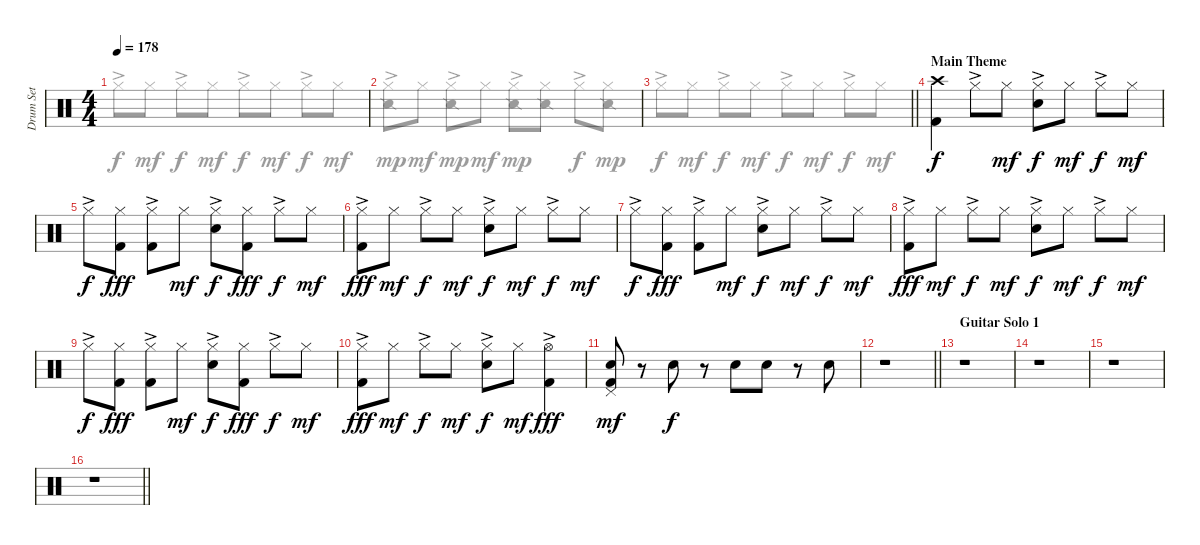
\track ("Drum Set" "Drum Set") {instrument percussion}
\staff {score}
\articulation defaults
\voice
\ts (4 4)
\tempo 178
\clef neutral
\ks c
|
|
\barLineRight lightlight
|
\section ("" "Main Theme")
("Crash high (hit)" "Kick (hit) 2").4 "Hi-Hat (closed)"{ac}.8 "Hi-Hat (closed)".8{dy mf} ("Hi-Hat (closed)"{ac} "Electric Snare (hit)").8{dy f} "Hi-Hat (closed)".8{dy mf} "Hi-Hat (closed)"{ac}.8{dy f} "Hi-Hat (closed)".8{dy mf} |
"Hi-Hat (closed)"{ac}.8{dy f} ("Hi-Hat (closed)" "Kick (hit) 2").8{dy fff} ("Hi-Hat (closed)"{ac} "Kick (hit) 2").8 "Hi-Hat (closed)".8{dy mf} ("Hi-Hat (closed)"{ac} "Electric Snare (hit)").8{dy f} ("Hi-Hat (closed)" "Kick (hit) 2").8{dy fff} "Hi-Hat (closed)"{ac}.8{dy f} "Hi-Hat (closed)".8{dy mf} |
("Hi-Hat (closed)"{ac} "Kick (hit) 2").8{dy fff} "Hi-Hat (closed)".8{dy mf} "Hi-Hat (closed)"{ac}.8{dy f} "Hi-Hat (closed)".8{dy mf} ("Hi-Hat (closed)"{ac} "Electric Snare (hit)").8{dy f} "Hi-Hat (closed)".8{dy mf} "Hi-Hat (closed)"{ac}.8{dy f} "Hi-Hat (closed)".8{dy mf} |
"Hi-Hat (closed)"{ac}.8{dy f} ("Hi-Hat (closed)" "Kick (hit) 2").8{dy fff} ("Hi-Hat (closed)"{ac} "Kick (hit) 2").8 "Hi-Hat (closed)".8{dy mf} ("Hi-Hat (closed)"{ac} "Electric Snare (hit)").8{dy f} "Hi-Hat (closed)".8{dy mf} "Hi-Hat (closed)"{ac}.8{dy f} "Hi-Hat (closed)".8{dy mf} |
("Hi-Hat (closed)"{ac} "Kick (hit) 2").8{dy fff} "Hi-Hat (closed)".8{dy mf} "Hi-Hat (closed)"{ac}.8{dy f} "Hi-Hat (closed)".8{dy mf} ("Hi-Hat (closed)"{ac} "Electric Snare (hit)").8{dy f} "Hi-Hat (closed)".8{dy mf} "Hi-Hat (closed)"{ac}.8{dy f} "Hi-Hat (closed)".8{dy mf} |
"Hi-Hat (closed)"{ac}.8{dy f} ("Hi-Hat (closed)" "Kick (hit) 2").8{dy fff} ("Hi-Hat (closed)"{ac} "Kick (hit) 2").8 "Hi-Hat (closed)".8{dy mf} ("Hi-Hat (closed)"{ac} "Electric Snare (hit)").8{dy f} ("Hi-Hat (closed)" "Kick (hit) 2").8{dy fff} "Hi-Hat (closed)"{ac}.8{dy f} "Hi-Hat (closed)".8{dy mf} |
("Hi-Hat (closed)"{ac} "Kick (hit) 2").8{dy fff} "Hi-Hat (closed)".8{dy mf} "Hi-Hat (closed)"{ac}.8{dy f} "Hi-Hat (closed)".8{dy mf} ("Hi-Hat (closed)"{ac} "Electric Snare (hit)").8{dy f} "Hi-Hat (closed)".8{dy mf} ("Hi-Hat (open)"{ac} "Kick (hit) 2").4{dy fff} |
("Pedal Hi-Hat (hit)" "Electric Snare (hit)" "Kick (hit) 2").8{dy mf} r.8 "Electric Snare (hit)".8{dy f} r.8 "Electric Snare (hit)".8 "Electric Snare (hit)".8 r.8 "Electric Snare (hit)".8 |
\barLineRight lightlight
r.1 |
\section ("" "Guitar Solo 1")
r.1 |
r.1 |
r.1 |
\barLineRight lightlight
r.1
\voice
\clef neutral
\ottava regular
\simile none
\ks c "Hi-Hat (closed)"{ac}.8{dy f} "Hi-Hat (closed)".8{dy mf} "Hi-Hat (closed)"{ac}.8{dy f} "Hi-Hat (closed)".8{dy mf} "Hi-Hat (closed)"{ac}.8{dy f} "Hi-Hat (closed)".8{dy mf} "Hi-Hat (closed)"{ac}.8{dy f} "Hi-Hat (closed)".8{dy mf}
|
("Hi-Hat (closed)"{ac} "Snare (side stick) 2").8{dy mp} "Hi-Hat (closed)".8{dy mf} ("Hi-Hat (closed)"{ac} "Snare (side stick) 2").8{dy mp} "Hi-Hat (closed)".8{dy mf} ("Hi-Hat (closed)"{ac} "Snare (side stick) 2").8{dy mp} ("Hi-Hat (closed)" "Snare (side stick) 2").8 "Hi-Hat (closed)"{ac}.8{dy f} ("Hi-Hat (closed)" "Snare (side stick) 2").8{dy mp} |
\barLineRight lightlight "Hi-Hat (closed)"{ac}.8{dy f} "Hi-Hat (closed)".8{dy mf} "Hi-Hat (closed)"{ac}.8{dy f} "Hi-Hat (closed)".8{dy mf} "Hi-Hat (closed)"{ac}.8{dy f} "Hi-Hat (closed)".8{dy mf} "Hi-Hat (closed)"{ac}.8{dy f} "Hi-Hat (closed)".8{dy mf}
|
|
|
|
|
|
|
|
|
\barLineRight lightlight
|
|
|
|
\barLineRight lightlight
